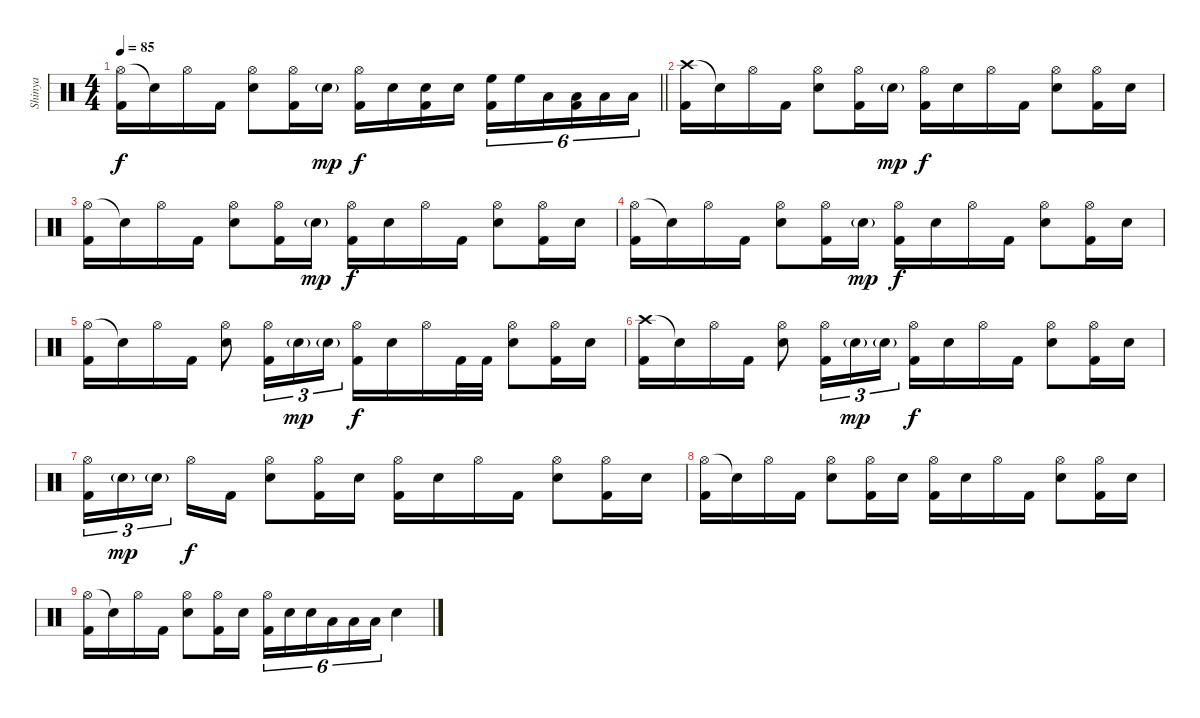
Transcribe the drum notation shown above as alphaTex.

\track ("Shinya" "Shinya") {instrument percussion}
\staff {score}
\articulation defaults
\ts (4 4)
\tempo 85
\clef neutral
\barLineRight lightlight
\ks c
("Hi-Hat (open)" "Kick (hit) 2").16{dy f} "Snare (hit)"{t}.16 "Hi-Hat (open)".16 "Kick (hit) 2".16 ("Hi-Hat (open)" "Electric Snare (hit)").8 ("Hi-Hat (open)" "Kick (hit) 2").16 "Electric Snare (hit)"{g}.16{dy mp} ("Hi-Hat (open)" "Kick (hit) 2").16{dy f} "Electric Snare (hit)".16 ("Electric Snare (hit)" "Kick (hit) 2").16 "Electric Snare (hit)".16 ("High Floor Tom (hit)" "Kick (hit) 2").16{tu (6 4)} "High Floor Tom (hit)".16{tu (6 4)} "Low Tom (hit)".16{tu (6 4)} ("Low Tom (hit)" "Kick (hit) 2").16{tu (6 4)} "Low Tom (hit)".16{tu (6 4)} "Low Tom (hit)".16{tu (6 4)} |
("Crash high (hit)" "Kick (hit) 2").16 "Snare (hit)"{t}.16 "Hi-Hat (open)".16 "Kick (hit) 2".16 ("Hi-Hat (open)" "Electric Snare (hit)").8 ("Hi-Hat (open)" "Kick (hit) 2").16 "Electric Snare (hit)"{g}.16{dy mp} ("Hi-Hat (open)" "Kick (hit) 2").16{dy f} "Electric Snare (hit)".16 "Hi-Hat (open)".16 "Kick (hit) 2".16 ("Hi-Hat (open)" "Electric Snare (hit)").8 ("Hi-Hat (open)" "Kick (hit) 2").16 "Electric Snare (hit)".16 |
("Hi-Hat (open)" "Kick (hit) 2").16 "Snare (hit)"{t}.16 "Hi-Hat (open)".16 "Kick (hit) 2".16 ("Hi-Hat (open)" "Electric Snare (hit)").8 ("Hi-Hat (open)" "Kick (hit) 2").16 "Electric Snare (hit)"{g}.16{dy mp} ("Hi-Hat (open)" "Kick (hit) 2").16{dy f} "Electric Snare (hit)".16 "Hi-Hat (open)".16 "Kick (hit) 2".16 ("Hi-Hat (open)" "Electric Snare (hit)").8 ("Hi-Hat (open)" "Kick (hit) 2").16 "Electric Snare (hit)".16 |
("Hi-Hat (open)" "Kick (hit) 2").16 "Snare (hit)"{t}.16 "Hi-Hat (open)".16 "Kick (hit) 2".16 ("Hi-Hat (open)" "Electric Snare (hit)").8 ("Hi-Hat (open)" "Kick (hit) 2").16 "Electric Snare (hit)"{g}.16{dy mp} ("Hi-Hat (open)" "Kick (hit) 2").16{dy f} "Electric Snare (hit)".16 "Hi-Hat (open)".16 "Kick (hit) 2".16 ("Hi-Hat (open)" "Electric Snare (hit)").8 ("Hi-Hat (open)" "Kick (hit) 2").16 "Electric Snare (hit)".16 |
("Hi-Hat (open)" "Kick (hit) 2").16 "Snare (hit)"{t}.16 "Hi-Hat (open)".16 "Kick (hit) 2".16 ("Hi-Hat (open)" "Electric Snare (hit)").8 ("Hi-Hat (open)" "Kick (hit) 2").16{tu (3 2)} "Electric Snare (hit)"{g}.16{tu (3 2) dy mp} "Electric Snare (hit)"{g}.16{tu (3 2)} ("Hi-Hat (open)" "Kick (hit) 2").16{dy f} "Electric Snare (hit)".16 "Hi-Hat (open)".16 "Kick (hit) 2".32 "Kick (hit) 2".32 ("Hi-Hat (open)" "Electric Snare (hit)").8 ("Hi-Hat (open)" "Kick (hit) 2").16 "Electric Snare (hit)".16 |
("Crash high (hit)" "Kick (hit) 2").16 "Snare (hit)"{t}.16 "Hi-Hat (open)".16 "Kick (hit) 2".16 ("Hi-Hat (open)" "Electric Snare (hit)").8 ("Hi-Hat (open)" "Kick (hit) 2").16{tu (3 2)} "Electric Snare (hit)"{g}.16{tu (3 2) dy mp} "Electric Snare (hit)"{g}.16{tu (3 2)} ("Hi-Hat (open)" "Kick (hit) 2").16{dy f} "Electric Snare (hit)".16 "Hi-Hat (open)".16 "Kick (hit) 2".16 ("Hi-Hat (open)" "Electric Snare (hit)").8 ("Hi-Hat (open)" "Kick (hit) 2").16 "Electric Snare (hit)".16 |
("Hi-Hat (open)" "Kick (hit) 2").16{tu (3 2)} "Electric Snare (hit)"{g}.16{tu (3 2) dy mp} "Electric Snare (hit)"{g}.16{tu (3 2)} "Hi-Hat (open)".16{dy f} "Kick (hit) 2".16 ("Hi-Hat (open)" "Electric Snare (hit)").8 ("Hi-Hat (open)" "Kick (hit) 2").16 "Electric Snare (hit)".16 ("Hi-Hat (open)" "Kick (hit) 2").16 "Electric Snare (hit)".16 "Hi-Hat (open)".16 "Kick (hit) 2".16 ("Hi-Hat (open)" "Electric Snare (hit)").8 ("Hi-Hat (open)" "Kick (hit) 2").16 "Electric Snare (hit)".16 |
("Hi-Hat (open)" "Kick (hit) 2").16 "Snare (hit)"{t}.16 "Hi-Hat (open)".16 "Kick (hit) 2".16 ("Hi-Hat (open)" "Electric Snare (hit)").8 ("Hi-Hat (open)" "Kick (hit) 2").16 "Electric Snare (hit)".16 ("Hi-Hat (open)" "Kick (hit) 2").16 "Electric Snare (hit)".16 "Hi-Hat (open)".16 "Kick (hit) 2".16 ("Hi-Hat (open)" "Electric Snare (hit)").8 ("Hi-Hat (open)" "Kick (hit) 2").16 "Electric Snare (hit)".16 |
("Hi-Hat (open)" "Kick (hit) 2").16 "Snare (hit)"{t}.16 "Hi-Hat (open)".16 "Kick (hit) 2".16 ("Hi-Hat (open)" "Electric Snare (hit)").8 ("Hi-Hat (open)" "Kick (hit) 2").16 "Electric Snare (hit)".16 ("Hi-Hat (open)" "Kick (hit) 2").16{tu (6 4)} "Electric Snare (hit)".16{tu (6 4)} "Electric Snare (hit)".16{tu (6 4)} "Low Tom (hit)".16{tu (6 4)} "Low Tom (hit)".16{tu (6 4)} "Low Tom (hit)".16{tu (6 4)} "Electric Snare (hit)".4
